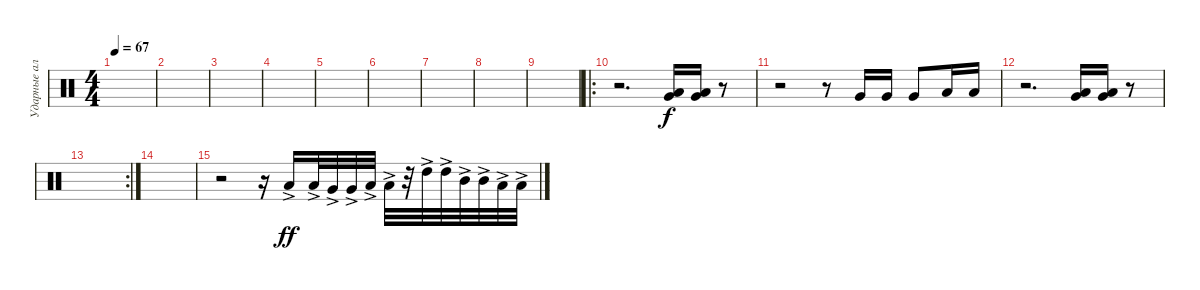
\track ("Ударные альты" "Ударные ал") {instrument percussion}
\staff {score}
\articulation defaults
\ts (4 4)
\tempo 67
\clef neutral
\ks c
|
|
|
|
|
|
|
|
|
\ro
r.2{d} ("Very Low Tom (hit)" "Low Floor Tom (hit)").16 ("Very Low Tom (hit)" "Low Floor Tom (hit)").16 r.8 |
r.2 r.8 "Very Low Tom (hit)".16 "Very Low Tom (hit)".16 "Very Low Tom (hit)".8 "Low Floor Tom (hit)".16 "Low Floor Tom (hit)".16 |
r.2{d} ("Very Low Tom (hit)" "Low Floor Tom (hit)").16 ("Very Low Tom (hit)" "Low Floor Tom (hit)").16 r.8 |
\rc 2
|
|
r.2 r.16 "Low Tom (hit)"{ac}.16{dy ff} "Low Tom (hit)"{ac}.32 "Very Low Tom (hit)"{ac}.32 "Very Low Tom (hit)"{ac}.32 "Low Floor Tom (hit)"{ac}.32 "Low Floor Tom (hit)"{ac}.32 r.32 "High Tom (hit)"{ac}.32 "High Tom (hit)"{ac}.32 "Mid Tom (hit)"{ac}.32 "Mid Tom (hit)"{ac}.32 "Low Tom (hit)"{ac}.32 "Low Tom (hit)"{ac}.32
